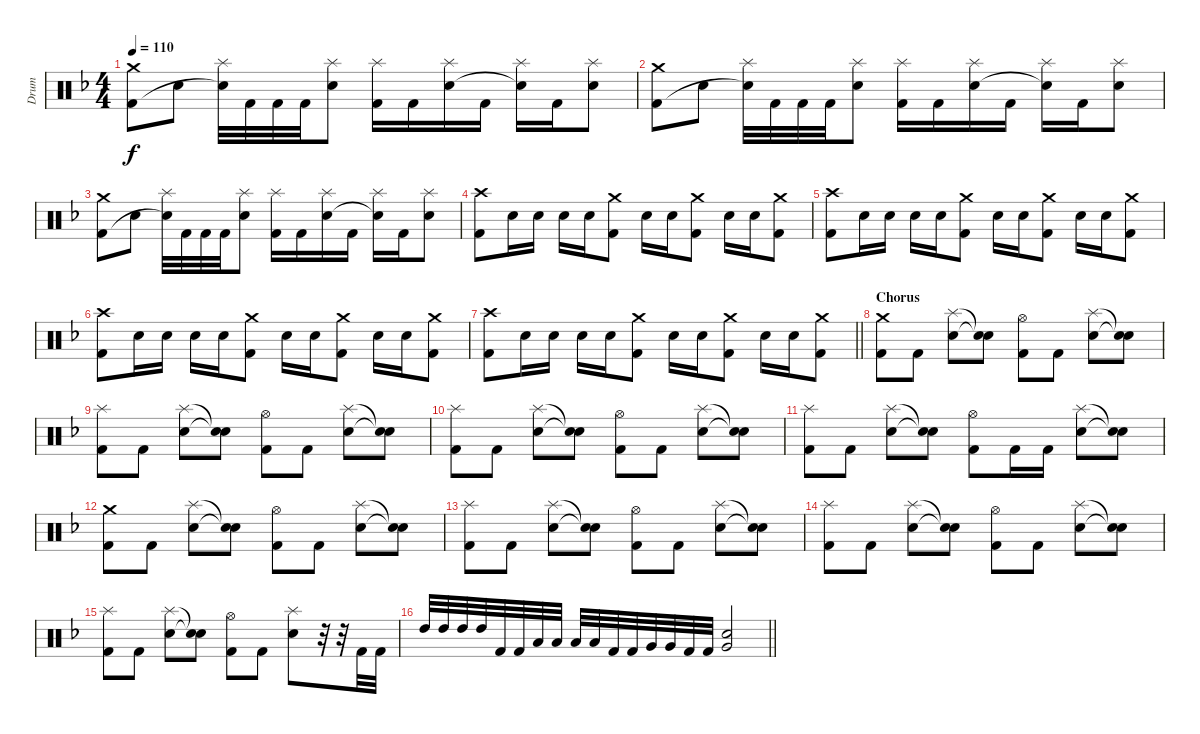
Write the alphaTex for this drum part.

\track ("Drum" "Drum") {instrument percussion}
\staff {score}
\articulation defaults
\ts (4 4)
\tempo 110
\clef neutral
\ks f
("Crash medium (hit)" "Kick (hit) 2").8{dy f} "Snare (hit) 2".8 ("Splash (hit)" "Snare (hit)"{t}).32 "Kick (hit) 2".32 "Kick (hit) 2".32 "Kick (hit) 2".32 ("Splash (hit)" "Snare (hit) 2").8 ("Splash (hit)" "Kick (hit) 2").16 "Kick (hit) 2".16 ("Splash (hit)" "Snare (hit) 2").16 "Kick (hit) 2".16 ("Splash (hit)" "Snare (hit)"{t}).16 "Kick (hit) 2".16 ("Splash (hit)" "Snare (hit) 2").8 |
("Crash medium (hit)" "Kick (hit) 2").8 "Snare (hit) 2".8 ("Splash (hit)" "Snare (hit)"{t}).32 "Kick (hit) 2".32 "Kick (hit) 2".32 "Kick (hit) 2".32 ("Splash (hit)" "Snare (hit) 2").8 ("Splash (hit)" "Kick (hit) 2").16 "Kick (hit) 2".16 ("Splash (hit)" "Snare (hit) 2").16 "Kick (hit) 2".16 ("Splash (hit)" "Snare (hit)"{t}).16 "Kick (hit) 2".16 ("Splash (hit)" "Snare (hit) 2").8 |
("Crash medium (hit)" "Kick (hit) 2").8 "Snare (hit) 2".8 ("Splash (hit)" "Snare (hit)"{t}).32 "Kick (hit) 2".32 "Kick (hit) 2".32 "Kick (hit) 2".32 ("Splash (hit)" "Snare (hit) 2").8 ("Splash (hit)" "Kick (hit) 2").16 "Kick (hit) 2".16 ("Splash (hit)" "Snare (hit) 2").16 "Kick (hit) 2".16 ("Splash (hit)" "Snare (hit)"{t}).16 "Kick (hit) 2".16 ("Splash (hit)" "Snare (hit) 2").8 |
("Crash high (hit)" "Kick (hit) 2").8 "Electric Snare (hit)".16 "Electric Snare (hit)".16 "Electric Snare (hit)".16 "Electric Snare (hit)".16 ("Crash medium (hit)" "Kick (hit) 2").8 "Electric Snare (hit)".16 "Electric Snare (hit)".16 ("Crash medium (hit)" "Kick (hit) 2").8 "Electric Snare (hit)".16 "Electric Snare (hit)".16 ("Crash medium (hit)" "Kick (hit) 2").8 |
("Crash high (hit)" "Kick (hit) 2").8 "Electric Snare (hit)".16 "Electric Snare (hit)".16 "Electric Snare (hit)".16 "Electric Snare (hit)".16 ("Crash medium (hit)" "Kick (hit) 2").8 "Electric Snare (hit)".16 "Electric Snare (hit)".16 ("Crash medium (hit)" "Kick (hit) 2").8 "Electric Snare (hit)".16 "Electric Snare (hit)".16 ("Crash medium (hit)" "Kick (hit) 2").8 |
("Crash high (hit)" "Kick (hit) 2").8 "Electric Snare (hit)".16 "Electric Snare (hit)".16 "Electric Snare (hit)".16 "Electric Snare (hit)".16 ("Crash medium (hit)" "Kick (hit) 2").8 "Electric Snare (hit)".16 "Electric Snare (hit)".16 ("Crash medium (hit)" "Kick (hit) 2").8 "Electric Snare (hit)".16 "Electric Snare (hit)".16 ("Crash medium (hit)" "Kick (hit) 2").8 |
\barLineRight lightlight
("Crash high (hit)" "Kick (hit) 2").8 "Electric Snare (hit)".16 "Electric Snare (hit)".16 "Electric Snare (hit)".16 "Electric Snare (hit)".16 ("Crash medium (hit)" "Kick (hit) 2").8 "Electric Snare (hit)".16 "Electric Snare (hit)".16 ("Crash medium (hit)" "Kick (hit) 2").8 "Electric Snare (hit)".16 "Electric Snare (hit)".16 ("Crash medium (hit)" "Kick (hit) 2").8 |
\section ("" "Chorus")
("Crash medium (hit)" "Kick (hit) 2").8 "Kick (hit) 2".8 ("Splash (hit)" "Electric Snare (hit)").8 ("Snare (hit)"{t} "Snare (hit)"{t}).8 ("Hi-Hat (open)" "Kick (hit) 2").8 "Kick (hit) 2".8 ("Splash (hit)" "Electric Snare (hit)").8 ("Snare (hit)"{t} "Snare (hit)"{t}).8 |
("Splash (hit)" "Kick (hit) 2").8 "Kick (hit) 2".8 ("Splash (hit)" "Electric Snare (hit)").8 ("Snare (hit)"{t} "Snare (hit)"{t}).8 ("Hi-Hat (open)" "Kick (hit) 2").8 "Kick (hit) 2".8 ("Splash (hit)" "Electric Snare (hit)").8 ("Snare (hit)"{t} "Snare (hit)"{t}).8 |
("Splash (hit)" "Kick (hit) 2").8 "Kick (hit) 2".8 ("Splash (hit)" "Electric Snare (hit)").8 ("Snare (hit)"{t} "Snare (hit)"{t}).8 ("Hi-Hat (open)" "Kick (hit) 2").8 "Kick (hit) 2".8 ("Splash (hit)" "Electric Snare (hit)").8 ("Snare (hit)"{t} "Snare (hit)"{t}).8 |
("Splash (hit)" "Kick (hit) 2").8 "Kick (hit) 2".8 ("Splash (hit)" "Electric Snare (hit)").8 ("Snare (hit)"{t} "Snare (hit)"{t}).8 ("Hi-Hat (open)" "Kick (hit) 2").8 "Kick (hit) 2".16 "Kick (hit) 2".16 ("Splash (hit)" "Electric Snare (hit)").8 ("Snare (hit)"{t} "Snare (hit)"{t}).8 |
("Crash medium (hit)" "Kick (hit) 2").8 "Kick (hit) 2".8 ("Splash (hit)" "Electric Snare (hit)").8 ("Snare (hit)"{t} "Snare (hit)"{t}).8 ("Hi-Hat (open)" "Kick (hit) 2").8 "Kick (hit) 2".8 ("Splash (hit)" "Electric Snare (hit)").8 ("Snare (hit)"{t} "Snare (hit)"{t}).8 |
("Splash (hit)" "Kick (hit) 2").8 "Kick (hit) 2".8 ("Splash (hit)" "Electric Snare (hit)").8 ("Snare (hit)"{t} "Snare (hit)"{t}).8 ("Hi-Hat (open)" "Kick (hit) 2").8 "Kick (hit) 2".8 ("Splash (hit)" "Electric Snare (hit)").8 ("Snare (hit)"{t} "Snare (hit)"{t}).8 |
("Splash (hit)" "Kick (hit) 2").8 "Kick (hit) 2".8 ("Splash (hit)" "Electric Snare (hit)").8 ("Snare (hit)"{t} "Snare (hit)"{t}).8 ("Hi-Hat (open)" "Kick (hit) 2").8 "Kick (hit) 2".8 ("Splash (hit)" "Electric Snare (hit)").8 ("Snare (hit)"{t} "Snare (hit)"{t}).8 |
("Splash (hit)" "Kick (hit) 2").8 "Kick (hit) 2".8 ("Splash (hit)" "Electric Snare (hit)").8 ("Snare (hit)"{t} "Snare (hit)"{t}).8 ("Hi-Hat (open)" "Kick (hit) 2").8 "Kick (hit) 2".8 ("Splash (hit)" "Electric Snare (hit)").8 r.32 r.32 "Kick (hit) 2".32 "Kick (hit) 2".32 |
\barLineRight lightlight "High Tom (hit)".32 "High Tom (hit)".32 "High Tom (hit)".32 "High Tom (hit)".32 "Kick (hit) 2".32 "Kick (hit) 2".32 "Low Tom (hit)".32 "Low Tom (hit)".32 "Low Tom (hit)".32 "Low Tom (hit)".32 "Kick (hit) 2".32 "Kick (hit) 2".32 "Very Low Tom (hit)".32 "Very Low Tom (hit)".32 "Kick (hit) 2".32 "Kick (hit) 2".32
("Snare (hit) 2" "Very Low Tom (hit)").2
